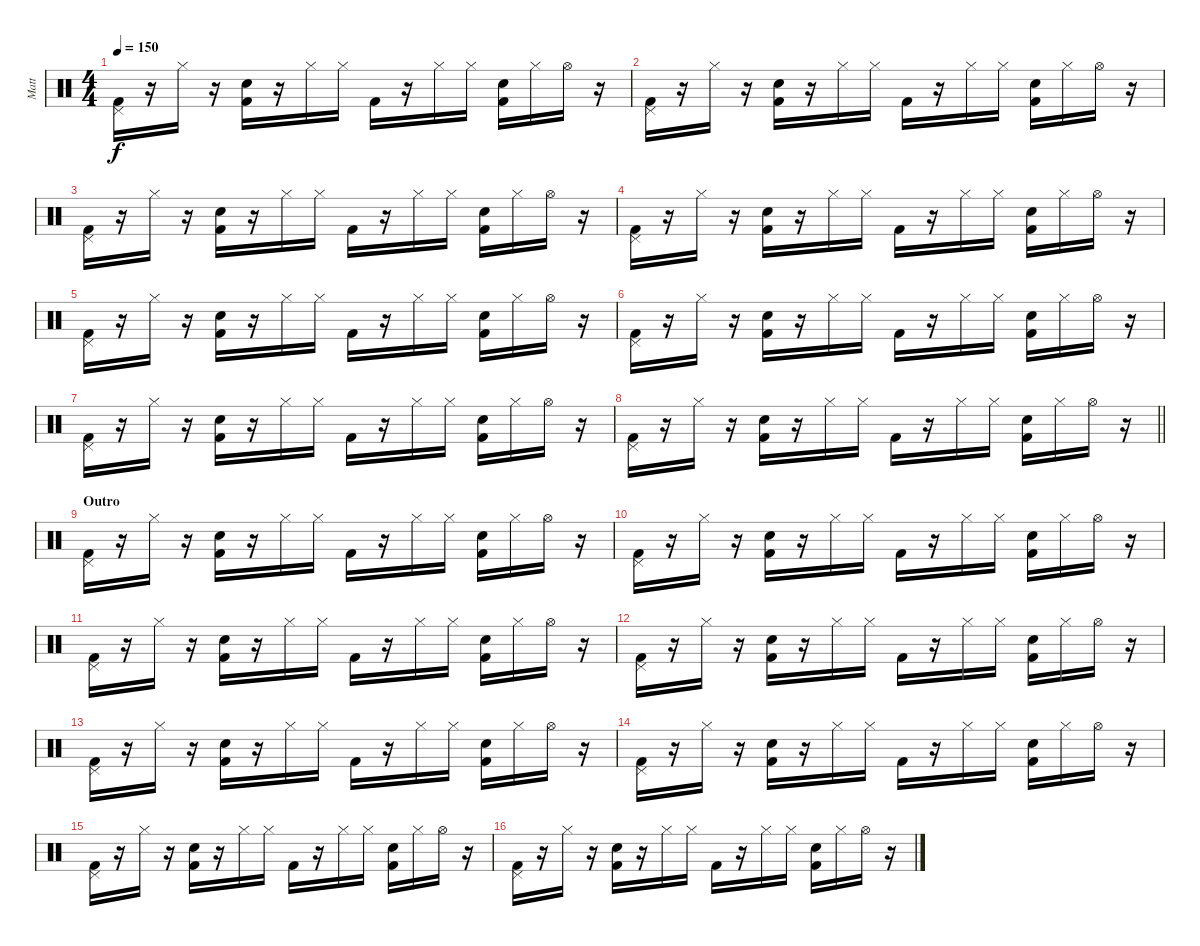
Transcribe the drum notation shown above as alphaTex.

\track ("Matt" "Matt") {instrument percussion}
\staff {score}
\articulation defaults
\ts (4 4)
\tempo 150
\clef neutral
\ks c
("Pedal Hi-Hat (hit)" "Kick (hit) 2").16{dy f} r.16 "Hi-Hat (closed)".16 r.16 ("Snare (hit) 2" "Kick (hit) 2").16 r.16 "Hi-Hat (closed)".16 "Hi-Hat (closed)".16 "Kick (hit) 2".16 r.16 "Hi-Hat (closed)".16 "Hi-Hat (closed)".16 ("Snare (hit) 2" "Kick (hit) 2").16 "Hi-Hat (closed)".16 "Hi-Hat (open)".16 r.16 |
("Pedal Hi-Hat (hit)" "Kick (hit) 2").16 r.16 "Hi-Hat (closed)".16 r.16 ("Snare (hit) 2" "Kick (hit) 2").16 r.16 "Hi-Hat (closed)".16 "Hi-Hat (closed)".16 "Kick (hit) 2".16 r.16 "Hi-Hat (closed)".16 "Hi-Hat (closed)".16 ("Snare (hit) 2" "Kick (hit) 2").16 "Hi-Hat (closed)".16 "Hi-Hat (open)".16 r.16 |
("Pedal Hi-Hat (hit)" "Kick (hit) 2").16 r.16 "Hi-Hat (closed)".16 r.16 ("Snare (hit) 2" "Kick (hit) 2").16 r.16 "Hi-Hat (closed)".16 "Hi-Hat (closed)".16 "Kick (hit) 2".16 r.16 "Hi-Hat (closed)".16 "Hi-Hat (closed)".16 ("Snare (hit) 2" "Kick (hit) 2").16 "Hi-Hat (closed)".16 "Hi-Hat (open)".16 r.16 |
("Pedal Hi-Hat (hit)" "Kick (hit) 2").16 r.16 "Hi-Hat (closed)".16 r.16 ("Snare (hit) 2" "Kick (hit) 2").16 r.16 "Hi-Hat (closed)".16 "Hi-Hat (closed)".16 "Kick (hit) 2".16 r.16 "Hi-Hat (closed)".16 "Hi-Hat (closed)".16 ("Snare (hit) 2" "Kick (hit) 2").16 "Hi-Hat (closed)".16 "Hi-Hat (open)".16 r.16 |
("Pedal Hi-Hat (hit)" "Kick (hit) 2").16 r.16 "Hi-Hat (closed)".16 r.16 ("Snare (hit) 2" "Kick (hit) 2").16 r.16 "Hi-Hat (closed)".16 "Hi-Hat (closed)".16 "Kick (hit) 2".16 r.16 "Hi-Hat (closed)".16 "Hi-Hat (closed)".16 ("Snare (hit) 2" "Kick (hit) 2").16 "Hi-Hat (closed)".16 "Hi-Hat (open)".16 r.16 |
("Pedal Hi-Hat (hit)" "Kick (hit) 2").16 r.16 "Hi-Hat (closed)".16 r.16 ("Snare (hit) 2" "Kick (hit) 2").16 r.16 "Hi-Hat (closed)".16 "Hi-Hat (closed)".16 "Kick (hit) 2".16 r.16 "Hi-Hat (closed)".16 "Hi-Hat (closed)".16 ("Snare (hit) 2" "Kick (hit) 2").16 "Hi-Hat (closed)".16 "Hi-Hat (open)".16 r.16 |
("Pedal Hi-Hat (hit)" "Kick (hit) 2").16 r.16 "Hi-Hat (closed)".16 r.16 ("Snare (hit) 2" "Kick (hit) 2").16 r.16 "Hi-Hat (closed)".16 "Hi-Hat (closed)".16 "Kick (hit) 2".16 r.16 "Hi-Hat (closed)".16 "Hi-Hat (closed)".16 ("Snare (hit) 2" "Kick (hit) 2").16 "Hi-Hat (closed)".16 "Hi-Hat (open)".16 r.16 |
\barLineRight lightlight
("Pedal Hi-Hat (hit)" "Kick (hit) 2").16 r.16 "Hi-Hat (closed)".16 r.16 ("Snare (hit) 2" "Kick (hit) 2").16 r.16 "Hi-Hat (closed)".16 "Hi-Hat (closed)".16 "Kick (hit) 2".16 r.16 "Hi-Hat (closed)".16 "Hi-Hat (closed)".16 ("Snare (hit) 2" "Kick (hit) 2").16 "Hi-Hat (closed)".16 "Hi-Hat (open)".16 r.16 |
\section ("" "Outro")
("Pedal Hi-Hat (hit)" "Kick (hit) 2").16 r.16 "Hi-Hat (closed)".16 r.16 ("Snare (hit) 2" "Kick (hit) 2").16 r.16 "Hi-Hat (closed)".16 "Hi-Hat (closed)".16 "Kick (hit) 2".16 r.16 "Hi-Hat (closed)".16 "Hi-Hat (closed)".16 ("Snare (hit) 2" "Kick (hit) 2").16 "Hi-Hat (closed)".16 "Hi-Hat (open)".16 r.16 |
("Pedal Hi-Hat (hit)" "Kick (hit) 2").16 r.16 "Hi-Hat (closed)".16 r.16 ("Snare (hit) 2" "Kick (hit) 2").16 r.16 "Hi-Hat (closed)".16 "Hi-Hat (closed)".16 "Kick (hit) 2".16 r.16 "Hi-Hat (closed)".16 "Hi-Hat (closed)".16 ("Snare (hit) 2" "Kick (hit) 2").16 "Hi-Hat (closed)".16 "Hi-Hat (open)".16 r.16 |
("Pedal Hi-Hat (hit)" "Kick (hit) 2").16 r.16 "Hi-Hat (closed)".16 r.16 ("Snare (hit) 2" "Kick (hit) 2").16 r.16 "Hi-Hat (closed)".16 "Hi-Hat (closed)".16 "Kick (hit) 2".16 r.16 "Hi-Hat (closed)".16 "Hi-Hat (closed)".16 ("Snare (hit) 2" "Kick (hit) 2").16 "Hi-Hat (closed)".16 "Hi-Hat (open)".16 r.16 |
("Pedal Hi-Hat (hit)" "Kick (hit) 2").16 r.16 "Hi-Hat (closed)".16 r.16 ("Snare (hit) 2" "Kick (hit) 2").16 r.16 "Hi-Hat (closed)".16 "Hi-Hat (closed)".16 "Kick (hit) 2".16 r.16 "Hi-Hat (closed)".16 "Hi-Hat (closed)".16 ("Snare (hit) 2" "Kick (hit) 2").16 "Hi-Hat (closed)".16 "Hi-Hat (open)".16 r.16 |
("Pedal Hi-Hat (hit)" "Kick (hit) 2").16 r.16 "Hi-Hat (closed)".16 r.16 ("Snare (hit) 2" "Kick (hit) 2").16 r.16 "Hi-Hat (closed)".16 "Hi-Hat (closed)".16 "Kick (hit) 2".16 r.16 "Hi-Hat (closed)".16 "Hi-Hat (closed)".16 ("Snare (hit) 2" "Kick (hit) 2").16 "Hi-Hat (closed)".16 "Hi-Hat (open)".16 r.16 |
("Pedal Hi-Hat (hit)" "Kick (hit) 2").16 r.16 "Hi-Hat (closed)".16 r.16 ("Snare (hit) 2" "Kick (hit) 2").16 r.16 "Hi-Hat (closed)".16 "Hi-Hat (closed)".16 "Kick (hit) 2".16 r.16 "Hi-Hat (closed)".16 "Hi-Hat (closed)".16 ("Snare (hit) 2" "Kick (hit) 2").16 "Hi-Hat (closed)".16 "Hi-Hat (open)".16 r.16 |
("Pedal Hi-Hat (hit)" "Kick (hit) 2").16 r.16 "Hi-Hat (closed)".16 r.16 ("Snare (hit) 2" "Kick (hit) 2").16 r.16 "Hi-Hat (closed)".16 "Hi-Hat (closed)".16 "Kick (hit) 2".16 r.16 "Hi-Hat (closed)".16 "Hi-Hat (closed)".16 ("Snare (hit) 2" "Kick (hit) 2").16 "Hi-Hat (closed)".16 "Hi-Hat (open)".16 r.16 |
("Pedal Hi-Hat (hit)" "Kick (hit) 2").16 r.16 "Hi-Hat (closed)".16 r.16 ("Snare (hit) 2" "Kick (hit) 2").16 r.16 "Hi-Hat (closed)".16 "Hi-Hat (closed)".16 "Kick (hit) 2".16 r.16 "Hi-Hat (closed)".16 "Hi-Hat (closed)".16 ("Snare (hit) 2" "Kick (hit) 2").16 "Hi-Hat (closed)".16 "Hi-Hat (open)".16 r.16
